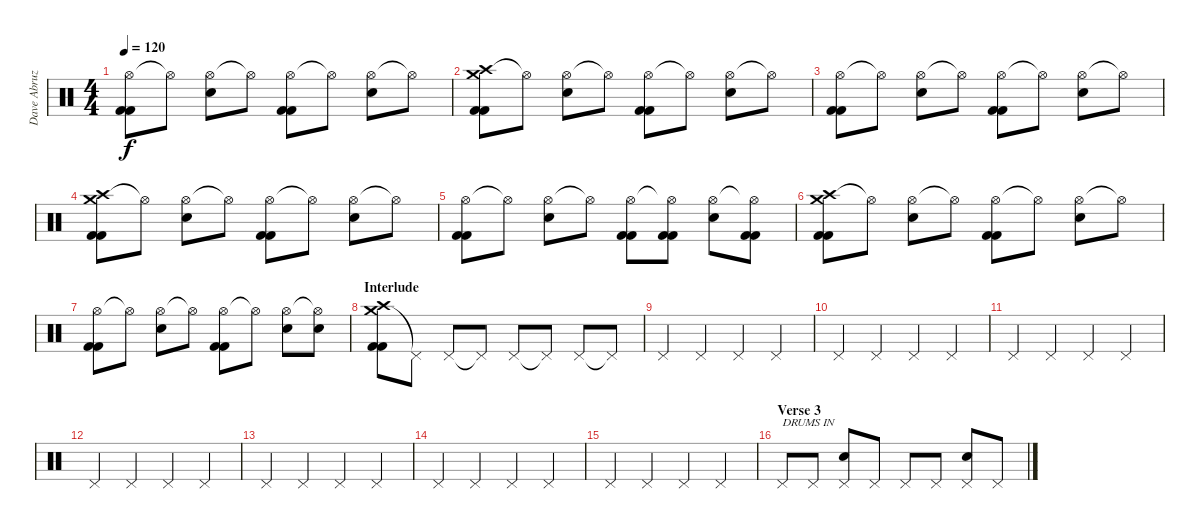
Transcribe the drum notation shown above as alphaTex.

\track ("Dave Abruzzese" "Dave Abruz") {instrument percussion}
\staff {score}
\articulation defaults
\ts (4 4)
\tempo 120
\clef neutral
\ks c
("Hi-Hat (open)" "Kick (hit) 2" "Kick (hit) 2").8{dy f} "Hi-Hat (open)"{t}.8 ("Hi-Hat (open)" "Electric Snare (hit)").8 "Hi-Hat (open)"{t}.8 ("Hi-Hat (open)" "Kick (hit) 2" "Kick (hit) 2").8 "Hi-Hat (open)"{t}.8 ("Hi-Hat (open)" "Electric Snare (hit)").8 "Hi-Hat (open)"{t}.8 |
("Crash high (hit)" "Crash medium (hit)" "Kick (hit) 2" "Kick (hit) 2").8 "Hi-Hat (open)"{t}.8 ("Hi-Hat (open)" "Electric Snare (hit)").8 "Hi-Hat (open)"{t}.8 ("Hi-Hat (open)" "Kick (hit) 2" "Kick (hit) 2").8 "Hi-Hat (open)"{t}.8 ("Hi-Hat (open)" "Electric Snare (hit)").8 "Hi-Hat (open)"{t}.8 |
("Hi-Hat (open)" "Kick (hit) 2" "Kick (hit) 2").8 "Hi-Hat (open)"{t}.8 ("Hi-Hat (open)" "Electric Snare (hit)").8 "Hi-Hat (open)"{t}.8 ("Hi-Hat (open)" "Kick (hit) 2" "Kick (hit) 2").8 "Hi-Hat (open)"{t}.8 ("Hi-Hat (open)" "Electric Snare (hit)").8 "Hi-Hat (open)"{t}.8 |
("Crash high (hit)" "Crash medium (hit)" "Kick (hit) 2" "Kick (hit) 2").8 "Hi-Hat (open)"{t}.8 ("Hi-Hat (open)" "Electric Snare (hit)").8 "Hi-Hat (open)"{t}.8 ("Hi-Hat (open)" "Kick (hit) 2" "Kick (hit) 2").8 "Hi-Hat (open)"{t}.8 ("Hi-Hat (open)" "Electric Snare (hit)").8 "Hi-Hat (open)"{t}.8 |
("Hi-Hat (open)" "Kick (hit) 2" "Kick (hit) 2").8 "Hi-Hat (open)"{t}.8 ("Hi-Hat (open)" "Electric Snare (hit)").8 "Hi-Hat (open)"{t}.8 ("Hi-Hat (open)" "Kick (hit) 2" "Kick (hit) 2").8 ("Hi-Hat (open)"{t} "Kick (hit) 2" "Kick (hit) 2").8 ("Hi-Hat (open)" "Electric Snare (hit)").8 ("Hi-Hat (open)"{t} "Kick (hit) 2" "Kick (hit) 2").8 |
("Crash high (hit)" "Crash medium (hit)" "Kick (hit) 2" "Kick (hit) 2").8 "Hi-Hat (open)"{t}.8 ("Hi-Hat (open)" "Electric Snare (hit)").8 "Hi-Hat (open)"{t}.8 ("Hi-Hat (open)" "Kick (hit) 2" "Kick (hit) 2").8 "Hi-Hat (open)"{t}.8 ("Hi-Hat (open)" "Electric Snare (hit)").8 "Hi-Hat (open)"{t}.8 |
("Hi-Hat (open)" "Kick (hit) 2" "Kick (hit) 2").8 "Hi-Hat (open)"{t}.8 ("Hi-Hat (open)" "Electric Snare (hit)").8 "Hi-Hat (open)"{t}.8 ("Hi-Hat (open)" "Kick (hit) 2" "Kick (hit) 2").8 "Hi-Hat (open)"{t}.8 ("Hi-Hat (open)" "Electric Snare (hit)").8 ("Hi-Hat (open)"{t} "Electric Snare (hit)").8 |
\section ("" "Interlude")
("Crash medium (hit)" "Crash high (hit)" "Kick (hit) 2" "Kick (hit) 2").8 "Pedal Hi-Hat (hit)"{t}.8 "Pedal Hi-Hat (hit)".8 "Pedal Hi-Hat (hit)"{t}.8 "Pedal Hi-Hat (hit)".8 "Pedal Hi-Hat (hit)"{t}.8 "Pedal Hi-Hat (hit)".8 "Pedal Hi-Hat (hit)"{t}.8 |
"Pedal Hi-Hat (hit)".4 "Pedal Hi-Hat (hit)".4 "Pedal Hi-Hat (hit)".4 "Pedal Hi-Hat (hit)".4 |
"Pedal Hi-Hat (hit)".4 "Pedal Hi-Hat (hit)".4 "Pedal Hi-Hat (hit)".4 "Pedal Hi-Hat (hit)".4 |
"Pedal Hi-Hat (hit)".4 "Pedal Hi-Hat (hit)".4 "Pedal Hi-Hat (hit)".4 "Pedal Hi-Hat (hit)".4 |
"Pedal Hi-Hat (hit)".4 "Pedal Hi-Hat (hit)".4 "Pedal Hi-Hat (hit)".4 "Pedal Hi-Hat (hit)".4 |
"Pedal Hi-Hat (hit)".4 "Pedal Hi-Hat (hit)".4 "Pedal Hi-Hat (hit)".4 "Pedal Hi-Hat (hit)".4 |
"Pedal Hi-Hat (hit)".4 "Pedal Hi-Hat (hit)".4 "Pedal Hi-Hat (hit)".4 "Pedal Hi-Hat (hit)".4 |
"Pedal Hi-Hat (hit)".4 "Pedal Hi-Hat (hit)".4 "Pedal Hi-Hat (hit)".4 "Pedal Hi-Hat (hit)".4 |
\section ("" "Verse 3")
"Pedal Hi-Hat (hit)".8{txt "DRUMS IN"} "Pedal Hi-Hat (hit)".8 ("Pedal Hi-Hat (hit)" "Electric Snare (hit)").8 "Pedal Hi-Hat (hit)".8 "Pedal Hi-Hat (hit)".8 "Pedal Hi-Hat (hit)".8 ("Pedal Hi-Hat (hit)" "Electric Snare (hit)").8 "Pedal Hi-Hat (hit)".8
